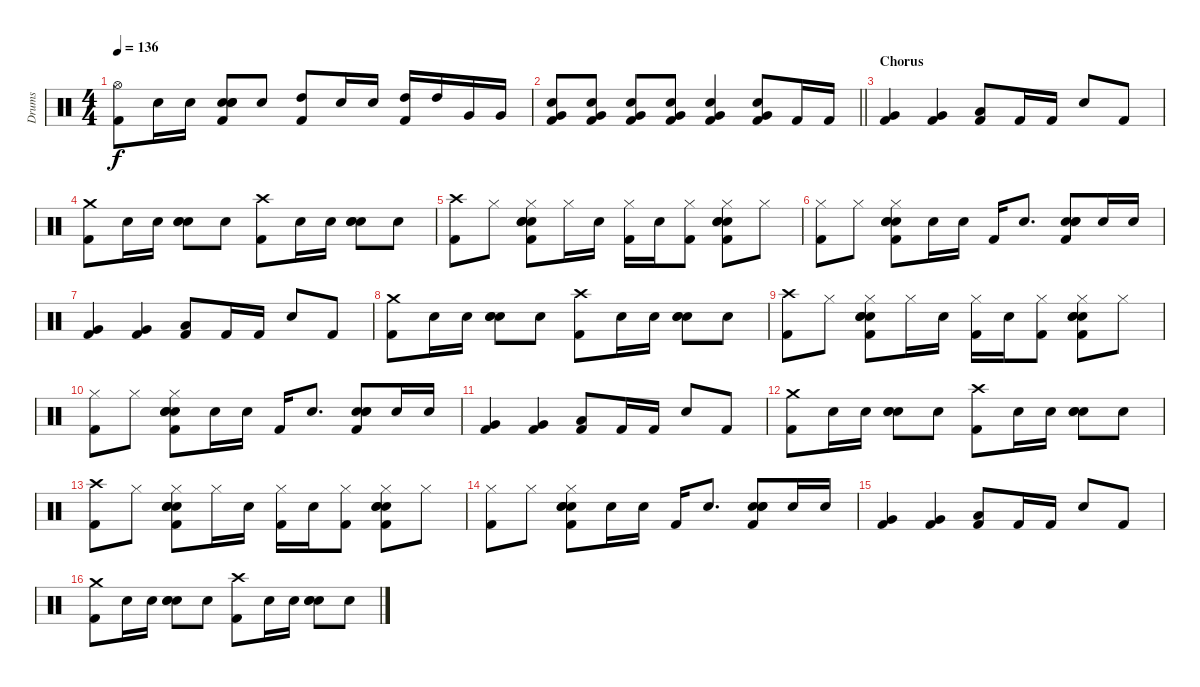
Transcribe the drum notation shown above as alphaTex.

\track ("Drums" "Drums") {instrument percussion}
\staff {score}
\articulation defaults
\ts (4 4)
\tempo 136
\clef neutral
\ks c
("Hi-Hat (open)" "Kick (hit) 2").8{dy f} "Electric Snare (hit)".16 "Electric Snare (hit)".16 ("Electric Snare (hit)" "Electric Snare (hit)" "Electric Snare (hit)" "Kick (hit) 2").8 "Electric Snare (hit)".8 ("High Tom (hit)" "Kick (hit) 2").8 "Electric Snare (hit)".16 "Electric Snare (hit)".16 ("High Tom (hit)" "Kick (hit) 2").16 "High Tom (hit)".16 "Very Low Tom (hit)".16 "Very Low Tom (hit)".16 |
\barLineRight lightlight
("Very Low Tom (hit)" "Electric Snare (hit)" "Kick (hit) 2").8 ("Very Low Tom (hit)" "Electric Snare (hit)" "Kick (hit) 2").8 ("Very Low Tom (hit)" "Electric Snare (hit)" "Kick (hit) 2").8 ("Very Low Tom (hit)" "Electric Snare (hit)" "Kick (hit) 2").8 ("Very Low Tom (hit)" "Electric Snare (hit)" "Kick (hit) 2").4 ("Very Low Tom (hit)" "Electric Snare (hit)" "Kick (hit) 2").8 "Kick (hit) 2".16 "Kick (hit) 2".16 |
\section ("" "Chorus")
("Very Low Tom (hit)" "Kick (hit) 2").4 ("Very Low Tom (hit)" "Kick (hit) 2").4 ("Low Tom (hit)" "Kick (hit) 2").8 "Kick (hit) 2".16 "Kick (hit) 2".16 "Electric Snare (hit)".8 "Kick (hit) 2".8 |
("Crash medium (hit)" "Kick (hit) 2").8 "Electric Snare (hit)".16 "Electric Snare (hit)".16 ("Electric Snare (hit)" "Electric Snare (hit)" "Electric Snare (hit)").8 "Electric Snare (hit)".8 ("Crash high (hit)" "Kick (hit) 2").8 "Electric Snare (hit)".16 "Electric Snare (hit)".16 ("Electric Snare (hit)" "Electric Snare (hit)" "Electric Snare (hit)").8 "Electric Snare (hit)".8 |
("Crash high (hit)" "Kick (hit) 2").8 "Hi-Hat (closed)".8 ("Hi-Hat (closed)" "Electric Snare (hit)" "Electric Snare (hit)" "Electric Snare (hit)" "Kick (hit) 2").8 "Hi-Hat (closed)".16 "Electric Snare (hit)".16 ("Hi-Hat (closed)" "Kick (hit) 2").16 "Electric Snare (hit)".16 ("Hi-Hat (closed)" "Kick (hit) 2").8 ("Hi-Hat (closed)" "Electric Snare (hit)" "Electric Snare (hit)" "Electric Snare (hit)" "Kick (hit) 2").8 "Hi-Hat (closed)".8 |
("Hi-Hat (closed)" "Kick (hit) 2").8 "Hi-Hat (closed)".8 ("Hi-Hat (closed)" "Electric Snare (hit)" "Electric Snare (hit)" "Electric Snare (hit)" "Kick (hit) 2").8 "Electric Snare (hit)".16 "Electric Snare (hit)".16 "Kick (hit) 2".16 "Electric Snare (hit)".8{d} ("Electric Snare (hit)" "Electric Snare (hit)" "Electric Snare (hit)" "Kick (hit) 2").8 "Electric Snare (hit)".16 "Electric Snare (hit)".16 |
("Very Low Tom (hit)" "Kick (hit) 2").4 ("Very Low Tom (hit)" "Kick (hit) 2").4 ("Low Tom (hit)" "Kick (hit) 2").8 "Kick (hit) 2".16 "Kick (hit) 2".16 "Electric Snare (hit)".8 "Kick (hit) 2".8 |
("Crash medium (hit)" "Kick (hit) 2").8 "Electric Snare (hit)".16 "Electric Snare (hit)".16 ("Electric Snare (hit)" "Electric Snare (hit)" "Electric Snare (hit)").8 "Electric Snare (hit)".8 ("Crash high (hit)" "Kick (hit) 2").8 "Electric Snare (hit)".16 "Electric Snare (hit)".16 ("Electric Snare (hit)" "Electric Snare (hit)" "Electric Snare (hit)").8 "Electric Snare (hit)".8 |
("Crash high (hit)" "Kick (hit) 2").8 "Hi-Hat (closed)".8 ("Hi-Hat (closed)" "Electric Snare (hit)" "Electric Snare (hit)" "Electric Snare (hit)" "Kick (hit) 2").8 "Hi-Hat (closed)".16 "Electric Snare (hit)".16 ("Hi-Hat (closed)" "Kick (hit) 2").16 "Electric Snare (hit)".16 ("Hi-Hat (closed)" "Kick (hit) 2").8 ("Hi-Hat (closed)" "Electric Snare (hit)" "Electric Snare (hit)" "Electric Snare (hit)" "Kick (hit) 2").8 "Hi-Hat (closed)".8 |
("Hi-Hat (closed)" "Kick (hit) 2").8 "Hi-Hat (closed)".8 ("Hi-Hat (closed)" "Electric Snare (hit)" "Electric Snare (hit)" "Electric Snare (hit)" "Kick (hit) 2").8 "Electric Snare (hit)".16 "Electric Snare (hit)".16 "Kick (hit) 2".16 "Electric Snare (hit)".8{d} ("Electric Snare (hit)" "Electric Snare (hit)" "Electric Snare (hit)" "Kick (hit) 2").8 "Electric Snare (hit)".16 "Electric Snare (hit)".16 |
("Very Low Tom (hit)" "Kick (hit) 2").4 ("Very Low Tom (hit)" "Kick (hit) 2").4 ("Low Tom (hit)" "Kick (hit) 2").8 "Kick (hit) 2".16 "Kick (hit) 2".16 "Electric Snare (hit)".8 "Kick (hit) 2".8 |
("Crash medium (hit)" "Kick (hit) 2").8 "Electric Snare (hit)".16 "Electric Snare (hit)".16 ("Electric Snare (hit)" "Electric Snare (hit)" "Electric Snare (hit)").8 "Electric Snare (hit)".8 ("Crash high (hit)" "Kick (hit) 2").8 "Electric Snare (hit)".16 "Electric Snare (hit)".16 ("Electric Snare (hit)" "Electric Snare (hit)" "Electric Snare (hit)").8 "Electric Snare (hit)".8 |
("Crash high (hit)" "Kick (hit) 2").8 "Hi-Hat (closed)".8 ("Hi-Hat (closed)" "Electric Snare (hit)" "Electric Snare (hit)" "Electric Snare (hit)" "Kick (hit) 2").8 "Hi-Hat (closed)".16 "Electric Snare (hit)".16 ("Hi-Hat (closed)" "Kick (hit) 2").16 "Electric Snare (hit)".16 ("Hi-Hat (closed)" "Kick (hit) 2").8 ("Hi-Hat (closed)" "Electric Snare (hit)" "Electric Snare (hit)" "Electric Snare (hit)" "Kick (hit) 2").8 "Hi-Hat (closed)".8 |
("Hi-Hat (closed)" "Kick (hit) 2").8 "Hi-Hat (closed)".8 ("Hi-Hat (closed)" "Electric Snare (hit)" "Electric Snare (hit)" "Electric Snare (hit)" "Kick (hit) 2").8 "Electric Snare (hit)".16 "Electric Snare (hit)".16 "Kick (hit) 2".16 "Electric Snare (hit)".8{d} ("Electric Snare (hit)" "Electric Snare (hit)" "Electric Snare (hit)" "Kick (hit) 2").8 "Electric Snare (hit)".16 "Electric Snare (hit)".16 |
("Very Low Tom (hit)" "Kick (hit) 2").4 ("Very Low Tom (hit)" "Kick (hit) 2").4 ("Low Tom (hit)" "Kick (hit) 2").8 "Kick (hit) 2".16 "Kick (hit) 2".16 "Electric Snare (hit)".8 "Kick (hit) 2".8 |
("Crash medium (hit)" "Kick (hit) 2").8 "Electric Snare (hit)".16 "Electric Snare (hit)".16 ("Electric Snare (hit)" "Electric Snare (hit)" "Electric Snare (hit)").8 "Electric Snare (hit)".8 ("Crash high (hit)" "Kick (hit) 2").8 "Electric Snare (hit)".16 "Electric Snare (hit)".16 ("Electric Snare (hit)" "Electric Snare (hit)" "Electric Snare (hit)").8 "Electric Snare (hit)".8
